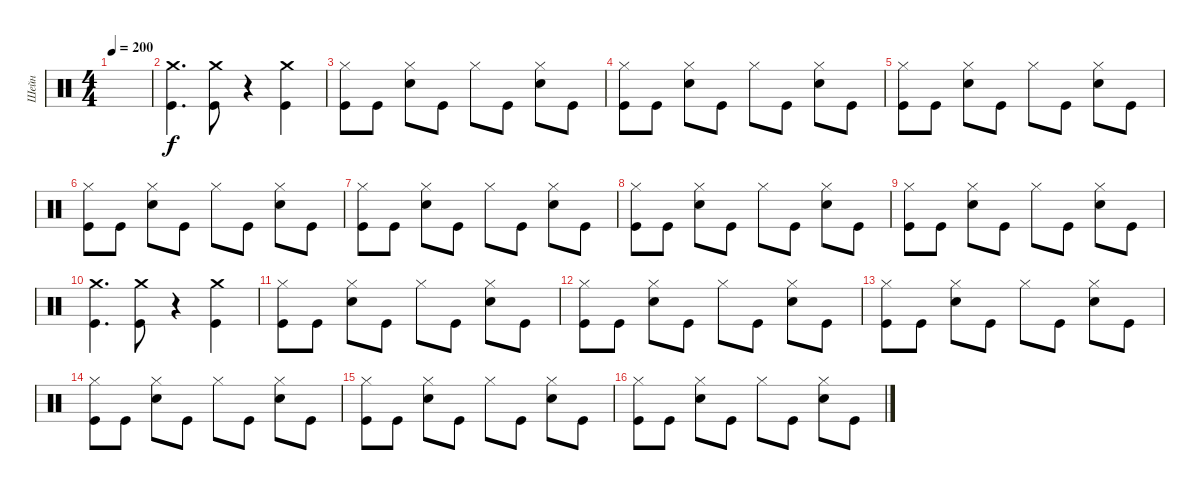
\track ("Шейн" "Шейн") {instrument percussion}
\staff {score}
\articulation defaults
\ts (4 4)
\tempo 200
\clef neutral
\ks c
|
("Kick (hit)" "Crash medium (hit)").4{d} ("Kick (hit)" "Crash medium (hit)").8 r.4 ("Crash medium (hit)" "Kick (hit)").4 |
("Kick (hit)" "Hi-Hat (closed)").8 "Kick (hit)".8 ("Snare (hit) 2" "Hi-Hat (closed)").8 "Kick (hit)".8 "Hi-Hat (closed)".8 "Kick (hit)".8 ("Snare (hit) 2" "Hi-Hat (closed)").8 "Kick (hit)".8 |
("Kick (hit)" "Hi-Hat (closed)").8 "Kick (hit)".8 ("Snare (hit) 2" "Hi-Hat (closed)").8 "Kick (hit)".8 "Hi-Hat (closed)".8 "Kick (hit)".8 ("Snare (hit) 2" "Hi-Hat (closed)").8 "Kick (hit)".8 |
("Kick (hit)" "Hi-Hat (closed)").8 "Kick (hit)".8 ("Snare (hit) 2" "Hi-Hat (closed)").8 "Kick (hit)".8 "Hi-Hat (closed)".8 "Kick (hit)".8 ("Snare (hit) 2" "Hi-Hat (closed)").8 "Kick (hit)".8 |
("Kick (hit)" "Hi-Hat (closed)").8 "Kick (hit)".8 ("Snare (hit) 2" "Hi-Hat (closed)").8 "Kick (hit)".8 "Hi-Hat (closed)".8 "Kick (hit)".8 ("Snare (hit) 2" "Hi-Hat (closed)").8 "Kick (hit)".8 |
("Kick (hit)" "Hi-Hat (closed)").8 "Kick (hit)".8 ("Snare (hit) 2" "Hi-Hat (closed)").8 "Kick (hit)".8 "Hi-Hat (closed)".8 "Kick (hit)".8 ("Snare (hit) 2" "Hi-Hat (closed)").8 "Kick (hit)".8 |
("Kick (hit)" "Hi-Hat (closed)").8 "Kick (hit)".8 ("Snare (hit) 2" "Hi-Hat (closed)").8 "Kick (hit)".8 "Hi-Hat (closed)".8 "Kick (hit)".8 ("Snare (hit) 2" "Hi-Hat (closed)").8 "Kick (hit)".8 |
("Kick (hit)" "Hi-Hat (closed)").8 "Kick (hit)".8 ("Snare (hit) 2" "Hi-Hat (closed)").8 "Kick (hit)".8 "Hi-Hat (closed)".8 "Kick (hit)".8 ("Snare (hit) 2" "Hi-Hat (closed)").8 "Kick (hit)".8 |
("Kick (hit)" "Crash medium (hit)").4{d} ("Kick (hit)" "Crash medium (hit)").8 r.4 ("Crash medium (hit)" "Kick (hit)").4 |
("Kick (hit)" "Hi-Hat (closed)").8 "Kick (hit)".8 ("Snare (hit) 2" "Hi-Hat (closed)").8 "Kick (hit)".8 "Hi-Hat (closed)".8 "Kick (hit)".8 ("Snare (hit) 2" "Hi-Hat (closed)").8 "Kick (hit)".8 |
("Kick (hit)" "Hi-Hat (closed)").8 "Kick (hit)".8 ("Snare (hit) 2" "Hi-Hat (closed)").8 "Kick (hit)".8 "Hi-Hat (closed)".8 "Kick (hit)".8 ("Snare (hit) 2" "Hi-Hat (closed)").8 "Kick (hit)".8 |
("Kick (hit)" "Hi-Hat (closed)").8 "Kick (hit)".8 ("Snare (hit) 2" "Hi-Hat (closed)").8 "Kick (hit)".8 "Hi-Hat (closed)".8 "Kick (hit)".8 ("Snare (hit) 2" "Hi-Hat (closed)").8 "Kick (hit)".8 |
("Kick (hit)" "Hi-Hat (closed)").8 "Kick (hit)".8 ("Snare (hit) 2" "Hi-Hat (closed)").8 "Kick (hit)".8 "Hi-Hat (closed)".8 "Kick (hit)".8 ("Snare (hit) 2" "Hi-Hat (closed)").8 "Kick (hit)".8 |
("Kick (hit)" "Hi-Hat (closed)").8 "Kick (hit)".8 ("Snare (hit) 2" "Hi-Hat (closed)").8 "Kick (hit)".8 "Hi-Hat (closed)".8 "Kick (hit)".8 ("Snare (hit) 2" "Hi-Hat (closed)").8 "Kick (hit)".8 |
("Kick (hit)" "Hi-Hat (closed)").8 "Kick (hit)".8 ("Snare (hit) 2" "Hi-Hat (closed)").8 "Kick (hit)".8 "Hi-Hat (closed)".8 "Kick (hit)".8 ("Snare (hit) 2" "Hi-Hat (closed)").8 "Kick (hit)".8
